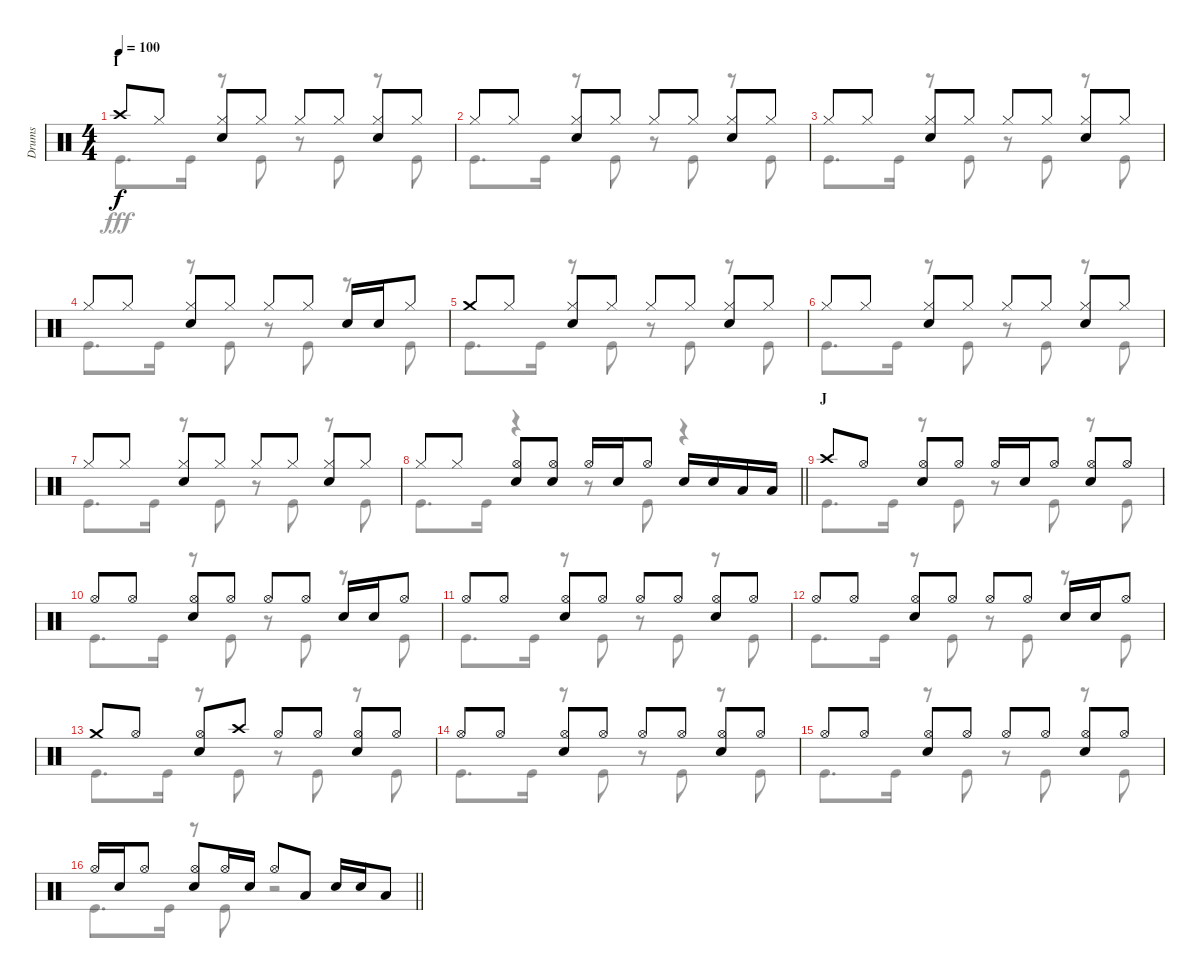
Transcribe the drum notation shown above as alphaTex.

\track ("Drums" "Drums") {instrument percussion}
\staff {score}
\articulation defaults
\voice
\ts (4 4)
\section ("" "I")
\tempo 100
\clef neutral
\ks c "Crash high (hit)".8{dy f} "Hi-Hat (closed)".8
("Hi-Hat (closed)" "Snare (hit) 2").8 "Hi-Hat (closed)".8 "Hi-Hat (closed)".8 "Hi-Hat (closed)".8 ("Hi-Hat (closed)" "Snare (hit) 2").8 "Hi-Hat (closed)".8 |
"Hi-Hat (closed)".8 "Hi-Hat (closed)".8 ("Hi-Hat (closed)" "Snare (hit) 2").8 "Hi-Hat (closed)".8 "Hi-Hat (closed)".8 "Hi-Hat (closed)".8 ("Hi-Hat (closed)" "Snare (hit) 2").8 "Hi-Hat (closed)".8 |
"Hi-Hat (closed)".8 "Hi-Hat (closed)".8 ("Hi-Hat (closed)" "Snare (hit) 2").8 "Hi-Hat (closed)".8 "Hi-Hat (closed)".8 "Hi-Hat (closed)".8 ("Hi-Hat (closed)" "Snare (hit) 2").8 "Hi-Hat (closed)".8 |
"Hi-Hat (closed)".8 "Hi-Hat (closed)".8 ("Hi-Hat (closed)" "Snare (hit) 2").8 "Hi-Hat (closed)".8 "Hi-Hat (closed)".8 "Hi-Hat (closed)".8 "Snare (hit) 2".16 "Snare (hit) 2".16 "Hi-Hat (closed)".8 |
"Crash medium (hit)".8 "Hi-Hat (closed)".8 ("Hi-Hat (closed)" "Snare (hit) 2").8 "Hi-Hat (closed)".8 "Hi-Hat (closed)".8 "Hi-Hat (closed)".8 ("Hi-Hat (closed)" "Snare (hit) 2").8 "Hi-Hat (closed)".8 |
"Hi-Hat (closed)".8 "Hi-Hat (closed)".8 ("Hi-Hat (closed)" "Snare (hit) 2").8 "Hi-Hat (closed)".8 "Hi-Hat (closed)".8 "Hi-Hat (closed)".8 ("Hi-Hat (closed)" "Snare (hit) 2").8 "Hi-Hat (closed)".8 |
"Hi-Hat (closed)".8 "Hi-Hat (closed)".8 ("Hi-Hat (closed)" "Snare (hit) 2").8 "Hi-Hat (closed)".8 "Hi-Hat (closed)".8 "Hi-Hat (closed)".8 ("Hi-Hat (closed)" "Snare (hit) 2").8 "Hi-Hat (closed)".8 |
\barLineRight lightlight "Hi-Hat (closed)".8 "Hi-Hat (closed)".8
("Hi-Hat (open)" "Snare (hit) 2").8 ("Hi-Hat (open)" "Snare (hit) 2").8 "Hi-Hat (open)".16 "Snare (hit) 2".16 "Hi-Hat (open)".8 "Snare (hit) 2".16 "Snare (hit) 2".16 "Low Tom (hit)".16 "Low Tom (hit)".16 |
\section ("" "J")
"Crash high (hit)".8 "Hi-Hat (open)".8 ("Hi-Hat (open)" "Snare (hit) 2").8 "Hi-Hat (open)".8 "Hi-Hat (open)".16 "Snare (hit) 2".16 "Hi-Hat (open)".8 ("Hi-Hat (open)" "Snare (hit) 2").8 "Hi-Hat (open)".8 |
"Hi-Hat (open)".8 "Hi-Hat (open)".8 ("Hi-Hat (open)" "Snare (hit) 2").8 "Hi-Hat (open)".8 "Hi-Hat (open)".8 "Hi-Hat (open)".8 "Snare (hit) 2".16 "Snare (hit) 2".16 "Hi-Hat (open)".8 |
"Hi-Hat (open)".8 "Hi-Hat (open)".8 ("Hi-Hat (open)" "Snare (hit) 2").8 "Hi-Hat (open)".8 "Hi-Hat (open)".8 "Hi-Hat (open)".8 ("Hi-Hat (open)" "Snare (hit) 2").8 "Hi-Hat (open)".8 |
"Hi-Hat (open)".8 "Hi-Hat (open)".8 ("Hi-Hat (open)" "Snare (hit) 2").8 "Hi-Hat (open)".8 "Hi-Hat (open)".8 "Hi-Hat (open)".8 "Snare (hit) 2".16 "Snare (hit) 2".16 "Hi-Hat (open)".8 |
"Crash medium (hit)".8 "Hi-Hat (open)".8 ("Hi-Hat (open)" "Snare (hit) 2").8 "Crash high (hit)".8 "Hi-Hat (open)".8 "Hi-Hat (open)".8 ("Hi-Hat (open)" "Snare (hit) 2").8 "Hi-Hat (open)".8 |
"Hi-Hat (open)".8 "Hi-Hat (open)".8 ("Hi-Hat (open)" "Snare (hit) 2").8 "Hi-Hat (open)".8 "Hi-Hat (open)".8 "Hi-Hat (open)".8 ("Hi-Hat (open)" "Snare (hit) 2").8 "Hi-Hat (open)".8 |
"Hi-Hat (open)".8 "Hi-Hat (open)".8 ("Hi-Hat (open)" "Snare (hit) 2").8 "Hi-Hat (open)".8 "Hi-Hat (open)".8 "Hi-Hat (open)".8 ("Hi-Hat (open)" "Snare (hit) 2").8 "Hi-Hat (open)".8 |
\barLineRight lightlight "Hi-Hat (open)".16 "Snare (hit) 2".16 "Hi-Hat (open)".8
("Hi-Hat (open)" "Snare (hit) 2").8 "Hi-Hat (open)".16 "Snare (hit) 2".16 "Hi-Hat (open)".8 "Low Tom (hit)".8 "Snare (hit) 2".16 "Snare (hit) 2".16 "Low Tom (hit)".8
\voice
\clef neutral
\ottava regular
\simile none
\ks c "Kick (hit)".8{d dy fff} "Kick (hit)".16
r.8 "Kick (hit)".8 r.8 "Kick (hit)".8 r.8 "Kick (hit)".8 |
"Kick (hit)".8{d} "Kick (hit)".16 r.8 "Kick (hit)".8 r.8 "Kick (hit)".8 r.8 "Kick (hit)".8 |
"Kick (hit)".8{d} "Kick (hit)".16 r.8 "Kick (hit)".8 r.8 "Kick (hit)".8 r.8 "Kick (hit)".8 |
"Kick (hit)".8{d} "Kick (hit)".16 r.8 "Kick (hit)".8 r.8 "Kick (hit)".8 r.8 "Kick (hit)".8 |
"Kick (hit)".8{d} "Kick (hit)".16 r.8 "Kick (hit)".8 r.8 "Kick (hit)".8 r.8 "Kick (hit)".8 |
"Kick (hit)".8{d} "Kick (hit)".16 r.8 "Kick (hit)".8 r.8 "Kick (hit)".8 r.8 "Kick (hit)".8 |
"Kick (hit)".8{d} "Kick (hit)".16 r.8 "Kick (hit)".8 r.8 "Kick (hit)".8 r.8 "Kick (hit)".8 |
\barLineRight lightlight "Kick (hit)".8{d} "Kick (hit)".16
r.4 r.8 "Kick (hit)".8 r.4 |
"Kick (hit)".8{d} "Kick (hit)".16 r.8 "Kick (hit)".8 r.8 "Kick (hit)".8 r.8 "Kick (hit)".8 |
"Kick (hit)".8{d} "Kick (hit)".16 r.8 "Kick (hit)".8 r.8 "Kick (hit)".8 r.8 "Kick (hit)".8 |
"Kick (hit)".8{d} "Kick (hit)".16 r.8 "Kick (hit)".8 r.8 "Kick (hit)".8 r.8 "Kick (hit)".8 |
"Kick (hit)".8{d} "Kick (hit)".16 r.8 "Kick (hit)".8 r.8 "Kick (hit)".8 r.8 "Kick (hit)".8 |
"Kick (hit)".8{d} "Kick (hit)".16 r.8 "Kick (hit)".8 r.8 "Kick (hit)".8 r.8 "Kick (hit)".8 |
"Kick (hit)".8{d} "Kick (hit)".16 r.8 "Kick (hit)".8 r.8 "Kick (hit)".8 r.8 "Kick (hit)".8 |
"Kick (hit)".8{d} "Kick (hit)".16 r.8 "Kick (hit)".8 r.8 "Kick (hit)".8 r.8 "Kick (hit)".8 |
\barLineRight lightlight "Kick (hit)".8{d} "Kick (hit)".16
r.8 "Kick (hit)".8 r.2
